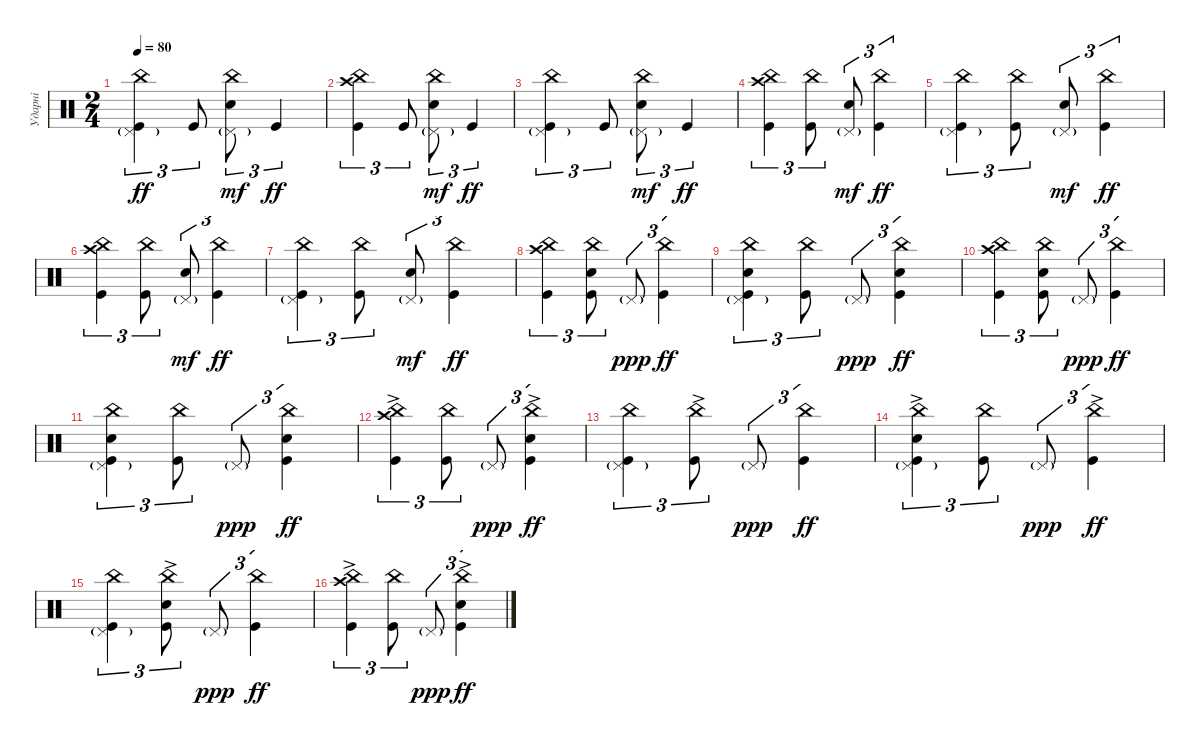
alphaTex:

\track ("Ударні" "Ударні") {instrument percussion}
\staff {score}
\articulation defaults
\ts (2 4)
\tempo 80
\clef neutral
\ks c
("China (hit)" "Pedal Hi-Hat (hit)"{g} "Kick (hit)").4{tu (3 2) dy ff} "Kick (hit)".8{tu (3 2)} ("China (hit)" "Pedal Hi-Hat (hit)"{g} "Snare (hit) 2").8{tu (3 2) dy mf} "Kick (hit)".4{tu (3 2) dy ff} |
("China (hit)" "Crash high (hit)" "Kick (hit)").4{tu (3 2)} "Kick (hit)".8{tu (3 2)} ("China (hit)" "Pedal Hi-Hat (hit)"{g} "Snare (hit) 2").8{tu (3 2) dy mf} "Kick (hit)".4{tu (3 2) dy ff} |
("China (hit)" "Pedal Hi-Hat (hit)"{g} "Kick (hit)").4{tu (3 2)} "Kick (hit)".8{tu (3 2)} ("China (hit)" "Pedal Hi-Hat (hit)"{g} "Snare (hit) 2").8{tu (3 2) dy mf} "Kick (hit)".4{tu (3 2) dy ff} |
("China (hit)" "Crash high (hit)" "Kick (hit)").4{tu (3 2)} ("China (hit)" "Kick (hit)").8{tu (3 2)} ("Pedal Hi-Hat (hit)"{g} "Snare (hit) 2").8{tu (3 2) dy mf} ("China (hit)" "Kick (hit)").4{tu (3 2) dy ff} |
("China (hit)" "Pedal Hi-Hat (hit)"{g} "Kick (hit)").4{tu (3 2)} ("China (hit)" "Kick (hit)").8{tu (3 2)} ("Pedal Hi-Hat (hit)"{g} "Snare (hit) 2").8{tu (3 2) dy mf} ("China (hit)" "Kick (hit)").4{tu (3 2) dy ff} |
("China (hit)" "Crash high (hit)" "Kick (hit)").4{tu (3 2)} ("China (hit)" "Kick (hit)").8{tu (3 2)} ("Pedal Hi-Hat (hit)"{g} "Snare (hit) 2").8{tu (3 2) dy mf} ("China (hit)" "Kick (hit)").4{tu (3 2) dy ff} |
("China (hit)" "Pedal Hi-Hat (hit)"{g} "Kick (hit)").4{tu (3 2)} ("China (hit)" "Kick (hit)").8{tu (3 2)} ("Pedal Hi-Hat (hit)"{g} "Snare (hit) 2").8{tu (3 2) dy mf} ("China (hit)" "Kick (hit)").4{tu (3 2) dy ff} |
("China (hit)" "Crash high (hit)" "Kick (hit)").4{tu (3 2)} ("China (hit)" "Snare (hit) 2" "Kick (hit)").8{tu (3 2)} "Pedal Hi-Hat (hit)"{g}.8{tu (3 2) dy ppp} ("China (hit)" "Kick (hit)").4{tu (3 2) dy ff} |
("China (hit)" "Pedal Hi-Hat (hit)"{g} "Snare (hit) 2" "Kick (hit)").4{tu (3 2)} ("China (hit)" "Kick (hit)").8{tu (3 2)} "Pedal Hi-Hat (hit)"{g}.8{tu (3 2) dy ppp} ("China (hit)" "Snare (hit) 2" "Kick (hit)").4{tu (3 2) dy ff} |
("China (hit)" "Crash high (hit)" "Kick (hit)").4{tu (3 2)} ("China (hit)" "Snare (hit) 2" "Kick (hit)").8{tu (3 2)} "Pedal Hi-Hat (hit)"{g}.8{tu (3 2) dy ppp} ("China (hit)" "Kick (hit)").4{tu (3 2) dy ff} |
("China (hit)" "Pedal Hi-Hat (hit)"{g} "Snare (hit) 2" "Kick (hit)").4{tu (3 2)} ("China (hit)" "Kick (hit)").8{tu (3 2)} "Pedal Hi-Hat (hit)"{g}.8{tu (3 2) dy ppp} ("China (hit)" "Snare (hit) 2" "Kick (hit)").4{tu (3 2) dy ff} |
("China (hit)"{ac} "Crash high (hit)" "Kick (hit)").4{tu (3 2)} ("China (hit)" "Kick (hit)").8{tu (3 2)} "Pedal Hi-Hat (hit)"{g}.8{tu (3 2) dy ppp} ("China (hit)"{ac} "Snare (hit) 2" "Kick (hit)").4{tu (3 2) dy ff} |
("China (hit)" "Pedal Hi-Hat (hit)"{g} "Kick (hit)").4{tu (3 2)} ("China (hit)"{ac} "Kick (hit)").8{tu (3 2)} "Pedal Hi-Hat (hit)"{g}.8{tu (3 2) dy ppp} ("China (hit)" "Kick (hit)").4{tu (3 2) dy ff} |
("China (hit)"{ac} "Pedal Hi-Hat (hit)"{g} "Snare (hit) 2" "Kick (hit)").4{tu (3 2)} ("China (hit)" "Kick (hit)").8{tu (3 2)} "Pedal Hi-Hat (hit)"{g}.8{tu (3 2) dy ppp} ("China (hit)"{ac} "Kick (hit)").4{tu (3 2) dy ff} |
("China (hit)" "Pedal Hi-Hat (hit)"{g} "Kick (hit)").4{tu (3 2)} ("China (hit)"{ac} "Snare (hit) 2" "Kick (hit)").8{tu (3 2)} "Pedal Hi-Hat (hit)"{g}.8{tu (3 2) dy ppp} ("China (hit)" "Kick (hit)").4{tu (3 2) dy ff} |
("China (hit)"{ac} "Crash high (hit)" "Kick (hit)").4{tu (3 2)} ("China (hit)" "Kick (hit)").8{tu (3 2)} "Pedal Hi-Hat (hit)"{g}.8{tu (3 2) dy ppp} ("China (hit)"{ac} "Snare (hit) 2" "Kick (hit)").4{tu (3 2) dy ff}
